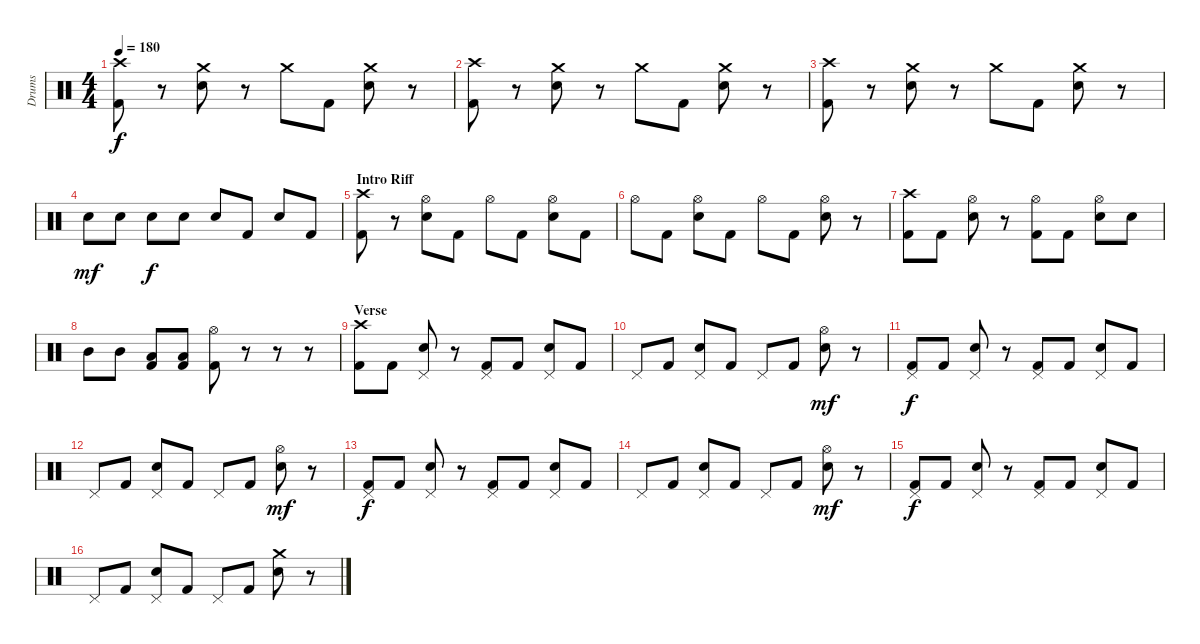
\track ("Drums" "Drums") {instrument percussion}
\staff {score}
\articulation defaults
\ts (4 4)
\tempo 180
\clef neutral
\ks c
("Crash high (hit)" "Kick (hit) 2").8{dy f} r.8 ("Crash medium (hit)" "Electric Snare (hit)").8 r.8 "Crash medium (hit)".8 "Kick (hit) 2".8 ("Crash medium (hit)" "Electric Snare (hit)").8 r.8 |
("Crash high (hit)" "Kick (hit) 2").8 r.8 ("Crash medium (hit)" "Electric Snare (hit)").8 r.8 "Crash medium (hit)".8 "Kick (hit) 2".8 ("Crash medium (hit)" "Electric Snare (hit)").8 r.8 |
("Crash high (hit)" "Kick (hit) 2").8 r.8 ("Crash medium (hit)" "Electric Snare (hit)").8 r.8 "Crash medium (hit)".8 "Kick (hit) 2".8 ("Crash medium (hit)" "Electric Snare (hit)").8 r.8 |
"Electric Snare (hit)".8{dy mf} "Electric Snare (hit)".8 "Electric Snare (hit)".8{dy f} "Electric Snare (hit)".8 "Electric Snare (hit)".8 "Kick (hit) 2".8 "Electric Snare (hit)".8 "Kick (hit) 2".8 |
\section ("" "Intro Riff")
("Crash high (hit)" "Kick (hit) 2").8 r.8 ("Hi-Hat (open)" "Electric Snare (hit)").8 "Kick (hit) 2".8 "Hi-Hat (open)".8 "Kick (hit) 2".8 ("Hi-Hat (open)" "Electric Snare (hit)").8 "Kick (hit) 2".8 |
"Hi-Hat (open)".8 "Kick (hit) 2".8 ("Hi-Hat (open)" "Electric Snare (hit)").8 "Kick (hit) 2".8 "Hi-Hat (open)".8 "Kick (hit) 2".8 ("Hi-Hat (open)" "Electric Snare (hit)").8 r.8 |
("Crash high (hit)" "Kick (hit) 2").8 "Kick (hit) 2".8 ("Hi-Hat (open)" "Electric Snare (hit)").8 r.8 ("Hi-Hat (open)" "Kick (hit) 2").8 "Kick (hit) 2".8 ("Hi-Hat (open)" "Electric Snare (hit)").8 "Electric Snare (hit)".8 |
"Mid Tom (hit)".8 "Mid Tom (hit)".8 ("Low Tom (hit)" "Kick (hit) 2").8 ("Low Tom (hit)" "Kick (hit) 2").8 ("Hi-Hat (open)" "Kick (hit) 2").8 r.8 r.8 r.8 |
\section ("" "Verse")
("Crash high (hit)" "Kick (hit) 2").8 "Kick (hit) 2".8 ("Pedal Hi-Hat (hit)" "Electric Snare (hit)").8 r.8 ("Pedal Hi-Hat (hit)" "Kick (hit) 2").8 "Kick (hit) 2".8 ("Pedal Hi-Hat (hit)" "Electric Snare (hit)").8 "Kick (hit) 2".8 |
"Pedal Hi-Hat (hit)".8 "Kick (hit) 2".8 ("Pedal Hi-Hat (hit)" "Electric Snare (hit)").8 "Kick (hit) 2".8 "Pedal Hi-Hat (hit)".8 "Kick (hit) 2".8 ("Hi-Hat (open)" "Electric Snare (hit)").8{dy mf} r.8 |
("Pedal Hi-Hat (hit)" "Kick (hit) 2").8{dy f} "Kick (hit) 2".8 ("Pedal Hi-Hat (hit)" "Electric Snare (hit)").8 r.8 ("Pedal Hi-Hat (hit)" "Kick (hit) 2").8 "Kick (hit) 2".8 ("Pedal Hi-Hat (hit)" "Electric Snare (hit)").8 "Kick (hit) 2".8 |
"Pedal Hi-Hat (hit)".8 "Kick (hit) 2".8 ("Pedal Hi-Hat (hit)" "Electric Snare (hit)").8 "Kick (hit) 2".8 "Pedal Hi-Hat (hit)".8 "Kick (hit) 2".8 ("Hi-Hat (open)" "Electric Snare (hit)").8{dy mf} r.8 |
("Pedal Hi-Hat (hit)" "Kick (hit) 2").8{dy f} "Kick (hit) 2".8 ("Pedal Hi-Hat (hit)" "Electric Snare (hit)").8 r.8 ("Pedal Hi-Hat (hit)" "Kick (hit) 2").8 "Kick (hit) 2".8 ("Pedal Hi-Hat (hit)" "Electric Snare (hit)").8 "Kick (hit) 2".8 |
"Pedal Hi-Hat (hit)".8 "Kick (hit) 2".8 ("Pedal Hi-Hat (hit)" "Electric Snare (hit)").8 "Kick (hit) 2".8 "Pedal Hi-Hat (hit)".8 "Kick (hit) 2".8 ("Hi-Hat (open)" "Electric Snare (hit)").8{dy mf} r.8 |
("Pedal Hi-Hat (hit)" "Kick (hit) 2").8{dy f} "Kick (hit) 2".8 ("Pedal Hi-Hat (hit)" "Electric Snare (hit)").8 r.8 ("Pedal Hi-Hat (hit)" "Kick (hit) 2").8 "Kick (hit) 2".8 ("Pedal Hi-Hat (hit)" "Electric Snare (hit)").8 "Kick (hit) 2".8 |
"Pedal Hi-Hat (hit)".8 "Kick (hit) 2".8 ("Pedal Hi-Hat (hit)" "Electric Snare (hit)").8 "Kick (hit) 2".8 "Pedal Hi-Hat (hit)".8 "Kick (hit) 2".8 ("Crash medium (hit)" "Electric Snare (hit)").8 r.8
